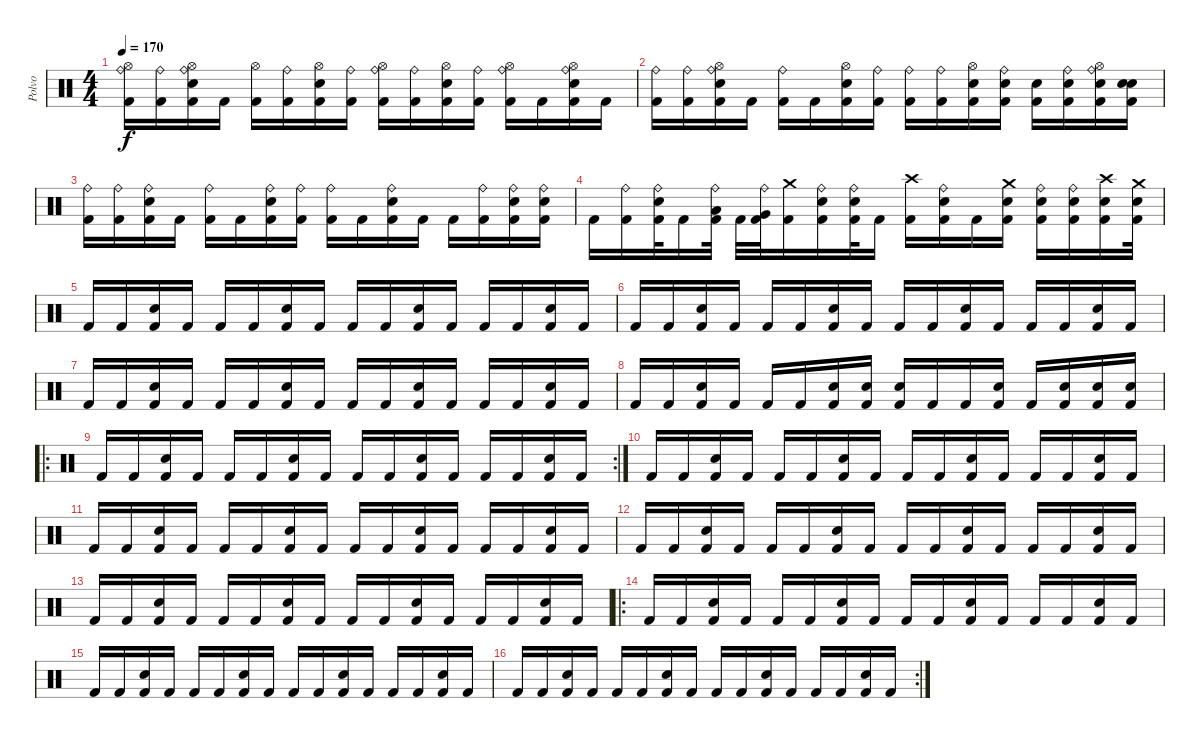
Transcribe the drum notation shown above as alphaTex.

\track ("Polvo" "Polvo") {instrument percussion}
\staff {score}
\articulation defaults
\ts (4 4)
\tempo 170
\clef neutral
\ks c
("Ride (bell)" "Hi-Hat (open)" "Kick (hit) 2").16{dy f} ("Ride (bell)" "Kick (hit) 2").16 ("Ride (bell)" "Hi-Hat (open)" "Electric Snare (hit)" "Kick (hit) 2").16 "Kick (hit) 2".16 ("Hi-Hat (open)" "Kick (hit) 2").16 ("Ride (bell)" "Kick (hit) 2").16 ("Hi-Hat (open)" "Electric Snare (hit)" "Kick (hit) 2").16 ("Ride (bell)" "Kick (hit) 2").16 ("Ride (bell)" "Hi-Hat (open)" "Kick (hit) 2").16 ("Ride (bell)" "Kick (hit) 2").16 ("Hi-Hat (open)" "Electric Snare (hit)" "Kick (hit) 2").16 ("Ride (bell)" "Kick (hit) 2").16 ("Ride (bell)" "Hi-Hat (open)" "Kick (hit) 2").16 "Kick (hit) 2".16 ("Ride (bell)" "Hi-Hat (open)" "Electric Snare (hit)" "Kick (hit) 2").16 "Kick (hit) 2".16 |
("Ride (bell)" "Kick (hit) 2").16 ("Ride (bell)" "Kick (hit) 2").16 ("Ride (bell)" "Hi-Hat (open)" "Electric Snare (hit)" "Kick (hit) 2").16 "Kick (hit) 2".16 ("Ride (bell)" "Kick (hit) 2").16 "Kick (hit) 2".16 ("Hi-Hat (open)" "Electric Snare (hit)" "Kick (hit) 2").16 ("Ride (bell)" "Kick (hit) 2").16 ("Ride (bell)" "Kick (hit) 2").16 ("Ride (bell)" "Kick (hit) 2").16 ("Hi-Hat (open)" "Electric Snare (hit)" "Kick (hit) 2").16 ("Ride (bell)" "Electric Snare (hit)" "Kick (hit) 2").16 ("Electric Snare (hit)" "Kick (hit) 2").16 ("Ride (bell)" "Electric Snare (hit)" "Kick (hit) 2").16 ("Ride (bell)" "Hi-Hat (open)" "Electric Snare (hit)" "Kick (hit) 2").16 ("Snare (hit)" "Electric Snare (hit)" "Kick (hit) 2").16 |
("Ride (bell)" "Kick (hit) 2").16 ("Ride (bell)" "Kick (hit) 2").16 ("Ride (bell)" "Electric Snare (hit)" "Kick (hit) 2").16 "Kick (hit) 2".16 ("Ride (bell)" "Kick (hit) 2").16 "Kick (hit) 2".16 ("Ride (bell)" "Electric Snare (hit)" "Kick (hit) 2").16 ("Ride (bell)" "Kick (hit) 2").16 ("Ride (bell)" "Kick (hit) 2").16 "Kick (hit) 2".16 ("Ride (bell)" "Electric Snare (hit)" "Kick (hit) 2").16 "Kick (hit) 2".16 "Kick (hit) 2".16 ("Ride (bell)" "Kick (hit) 2").16 ("Ride (bell)" "Electric Snare (hit)" "Kick (hit) 2").16 ("Ride (bell)" "Electric Snare (hit)" "Kick (hit) 2").16 |
"Kick (hit) 2".16 ("Ride (bell)" "Kick (hit) 2").16 ("Ride (bell)" "Electric Snare (hit)" "Kick (hit) 2").32 "Kick (hit) 2".16 ("Ride (bell)" "Low Floor Tom (hit)" "Kick (hit) 2").32 "Kick (hit) 2".32 ("Ride (bell)" "Very Low Tom (hit)" "Kick (hit) 2").32 ("Crash medium (hit)" "Kick (hit) 2").16 ("Ride (bell)" "Electric Snare (hit)" "Kick (hit) 2").16 ("Ride (bell)" "Electric Snare (hit)" "Kick (hit) 2").32 "Kick (hit) 2".16 ("Crash high (hit)" "Kick (hit) 2").16 ("Ride (bell)" "Electric Snare (hit)" "Kick (hit) 2").16 "Kick (hit) 2".16 ("Crash medium (hit)" "Electric Snare (hit)" "Kick (hit) 2").16 ("Ride (bell)" "Electric Snare (hit)" "Kick (hit) 2").16 ("Ride (bell)" "Electric Snare (hit)" "Kick (hit) 2").16 ("Crash high (hit)" "Electric Snare (hit)" "Kick (hit) 2").16 ("Crash medium (hit)" "Electric Snare (hit)" "Kick (hit) 2").32 |
"Kick (hit) 2".16 "Kick (hit) 2".16 ("Electric Snare (hit)" "Kick (hit) 2").16 "Kick (hit) 2".16 "Kick (hit) 2".16 "Kick (hit) 2".16 ("Electric Snare (hit)" "Kick (hit) 2").16 "Kick (hit) 2".16 "Kick (hit) 2".16 "Kick (hit) 2".16 ("Electric Snare (hit)" "Kick (hit) 2").16 "Kick (hit) 2".16 "Kick (hit) 2".16 "Kick (hit) 2".16 ("Electric Snare (hit)" "Kick (hit) 2").16 "Kick (hit) 2".16 |
"Kick (hit) 2".16 "Kick (hit) 2".16 ("Electric Snare (hit)" "Kick (hit) 2").16 "Kick (hit) 2".16 "Kick (hit) 2".16 "Kick (hit) 2".16 ("Electric Snare (hit)" "Kick (hit) 2").16 "Kick (hit) 2".16 "Kick (hit) 2".16 "Kick (hit) 2".16 ("Electric Snare (hit)" "Kick (hit) 2").16 "Kick (hit) 2".16 "Kick (hit) 2".16 "Kick (hit) 2".16 ("Electric Snare (hit)" "Kick (hit) 2").16 "Kick (hit) 2".16 |
"Kick (hit) 2".16 "Kick (hit) 2".16 ("Electric Snare (hit)" "Kick (hit) 2").16 "Kick (hit) 2".16 "Kick (hit) 2".16 "Kick (hit) 2".16 ("Electric Snare (hit)" "Kick (hit) 2").16 "Kick (hit) 2".16 "Kick (hit) 2".16 "Kick (hit) 2".16 ("Electric Snare (hit)" "Kick (hit) 2").16 "Kick (hit) 2".16 "Kick (hit) 2".16 "Kick (hit) 2".16 ("Electric Snare (hit)" "Kick (hit) 2").16 "Kick (hit) 2".16 |
"Kick (hit) 2".16 "Kick (hit) 2".16 ("Electric Snare (hit)" "Kick (hit) 2").16 "Kick (hit) 2".16 "Kick (hit) 2".16 "Kick (hit) 2".16 ("Electric Snare (hit)" "Kick (hit) 2").16 ("Electric Snare (hit)" "Kick (hit) 2").16 ("Electric Snare (hit)" "Kick (hit) 2").16 "Kick (hit) 2".16 "Kick (hit) 2".16 ("Electric Snare (hit)" "Kick (hit) 2").16 "Kick (hit) 2".16 ("Electric Snare (hit)" "Kick (hit) 2").16 ("Electric Snare (hit)" "Kick (hit) 2").16 ("Electric Snare (hit)" "Kick (hit) 2").16 |
\ro
\rc 2 "Kick (hit) 2".16 "Kick (hit) 2".16
("Electric Snare (hit)" "Kick (hit) 2").16 "Kick (hit) 2".16 "Kick (hit) 2".16 "Kick (hit) 2".16 ("Electric Snare (hit)" "Kick (hit) 2").16 "Kick (hit) 2".16 "Kick (hit) 2".16 "Kick (hit) 2".16 ("Electric Snare (hit)" "Kick (hit) 2").16 "Kick (hit) 2".16 "Kick (hit) 2".16 "Kick (hit) 2".16 ("Electric Snare (hit)" "Kick (hit) 2").16 "Kick (hit) 2".16 |
"Kick (hit) 2".16 "Kick (hit) 2".16 ("Electric Snare (hit)" "Kick (hit) 2").16 "Kick (hit) 2".16 "Kick (hit) 2".16 "Kick (hit) 2".16 ("Electric Snare (hit)" "Kick (hit) 2").16 "Kick (hit) 2".16 "Kick (hit) 2".16 "Kick (hit) 2".16 ("Electric Snare (hit)" "Kick (hit) 2").16 "Kick (hit) 2".16 "Kick (hit) 2".16 "Kick (hit) 2".16 ("Electric Snare (hit)" "Kick (hit) 2").16 "Kick (hit) 2".16 |
"Kick (hit) 2".16 "Kick (hit) 2".16 ("Electric Snare (hit)" "Kick (hit) 2").16 "Kick (hit) 2".16 "Kick (hit) 2".16 "Kick (hit) 2".16 ("Electric Snare (hit)" "Kick (hit) 2").16 "Kick (hit) 2".16 "Kick (hit) 2".16 "Kick (hit) 2".16 ("Electric Snare (hit)" "Kick (hit) 2").16 "Kick (hit) 2".16 "Kick (hit) 2".16 "Kick (hit) 2".16 ("Electric Snare (hit)" "Kick (hit) 2").16 "Kick (hit) 2".16 |
"Kick (hit) 2".16 "Kick (hit) 2".16 ("Electric Snare (hit)" "Kick (hit) 2").16 "Kick (hit) 2".16 "Kick (hit) 2".16 "Kick (hit) 2".16 ("Electric Snare (hit)" "Kick (hit) 2").16 "Kick (hit) 2".16 "Kick (hit) 2".16 "Kick (hit) 2".16 ("Electric Snare (hit)" "Kick (hit) 2").16 "Kick (hit) 2".16 "Kick (hit) 2".16 "Kick (hit) 2".16 ("Electric Snare (hit)" "Kick (hit) 2").16 "Kick (hit) 2".16 |
"Kick (hit) 2".16 "Kick (hit) 2".16 ("Electric Snare (hit)" "Kick (hit) 2").16 "Kick (hit) 2".16 "Kick (hit) 2".16 "Kick (hit) 2".16 ("Electric Snare (hit)" "Kick (hit) 2").16 "Kick (hit) 2".16 "Kick (hit) 2".16 "Kick (hit) 2".16 ("Electric Snare (hit)" "Kick (hit) 2").16 "Kick (hit) 2".16 "Kick (hit) 2".16 "Kick (hit) 2".16 ("Electric Snare (hit)" "Kick (hit) 2").16 "Kick (hit) 2".16 |
\ro "Kick (hit) 2".16 "Kick (hit) 2".16
("Electric Snare (hit)" "Kick (hit) 2").16 "Kick (hit) 2".16 "Kick (hit) 2".16 "Kick (hit) 2".16 ("Electric Snare (hit)" "Kick (hit) 2").16 "Kick (hit) 2".16 "Kick (hit) 2".16 "Kick (hit) 2".16 ("Electric Snare (hit)" "Kick (hit) 2").16 "Kick (hit) 2".16 "Kick (hit) 2".16 "Kick (hit) 2".16 ("Electric Snare (hit)" "Kick (hit) 2").16 "Kick (hit) 2".16 |
"Kick (hit) 2".16 "Kick (hit) 2".16 ("Electric Snare (hit)" "Kick (hit) 2").16 "Kick (hit) 2".16 "Kick (hit) 2".16 "Kick (hit) 2".16 ("Electric Snare (hit)" "Kick (hit) 2").16 "Kick (hit) 2".16 "Kick (hit) 2".16 "Kick (hit) 2".16 ("Electric Snare (hit)" "Kick (hit) 2").16 "Kick (hit) 2".16 "Kick (hit) 2".16 "Kick (hit) 2".16 ("Electric Snare (hit)" "Kick (hit) 2").16 "Kick (hit) 2".16 |
\rc 2 "Kick (hit) 2".16 "Kick (hit) 2".16
("Electric Snare (hit)" "Kick (hit) 2").16 "Kick (hit) 2".16 "Kick (hit) 2".16 "Kick (hit) 2".16 ("Electric Snare (hit)" "Kick (hit) 2").16 "Kick (hit) 2".16 "Kick (hit) 2".16 "Kick (hit) 2".16 ("Electric Snare (hit)" "Kick (hit) 2").16 "Kick (hit) 2".16 "Kick (hit) 2".16 "Kick (hit) 2".16 ("Electric Snare (hit)" "Kick (hit) 2").16 "Kick (hit) 2".16
